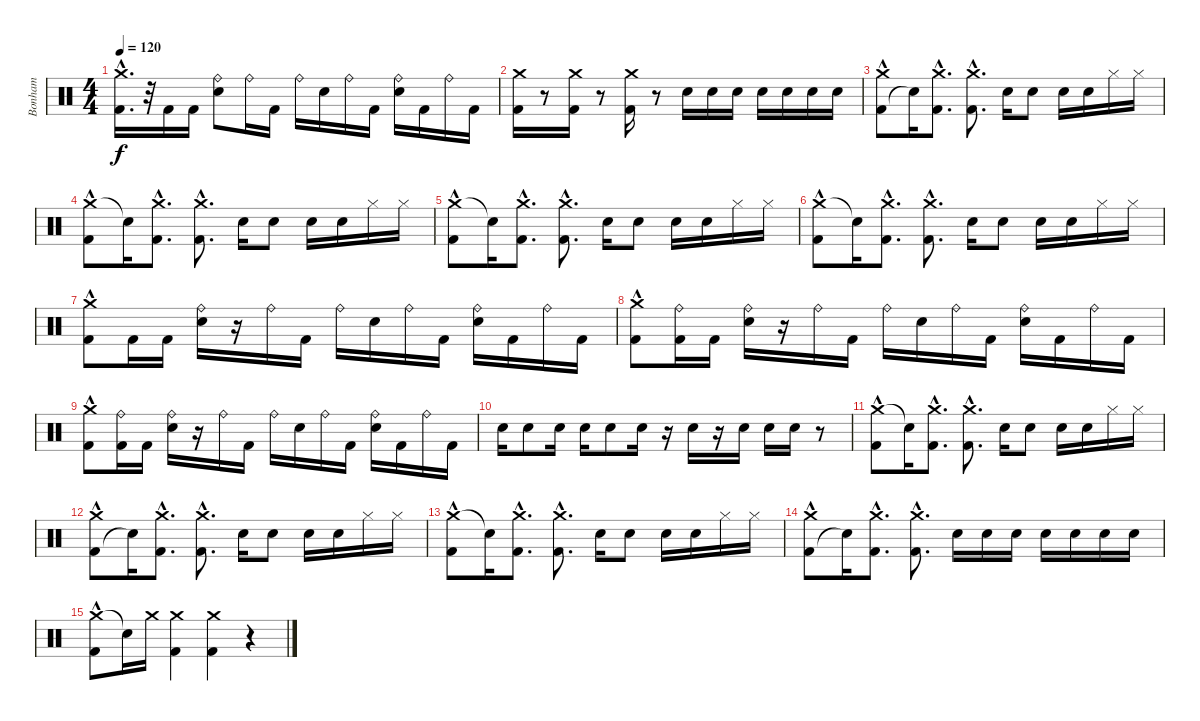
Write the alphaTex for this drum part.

\track ("Bonham" "Bonham") {instrument percussion}
\staff {score}
\articulation defaults
\ts (4 4)
\tempo 120
\clef neutral
\ks c
("Crash medium (hit)"{hac} "Kick (hit) 2"{hac}).16{d dy f} r.32 "Kick (hit) 2".16 "Kick (hit) 2".16 ("Ride (bell)" "Electric Snare (hit)").8 "Ride (bell)".16 "Kick (hit) 2".16 "Ride (bell)".16 "Electric Snare (hit)".16 "Ride (bell)".16 "Kick (hit) 2".16 ("Ride (bell)" "Electric Snare (hit)").16 "Kick (hit) 2".16 "Ride (bell)".16 "Kick (hit) 2".16 |
("Crash medium (hit)" "Kick (hit) 2").16 r.8 ("Kick (hit) 2" "Crash medium (hit)").16 r.8 ("Kick (hit) 2" "Crash medium (hit)").16 r.8 "Electric Snare (hit)".16 "Electric Snare (hit)".16 "Electric Snare (hit)".16 "Electric Snare (hit)".16 "Electric Snare (hit)".16 "Electric Snare (hit)".16 "Electric Snare (hit)".16 |
("Kick (hit) 2" "Crash medium (hit)"{hac}).8 "Snare (hit)"{t}.16 ("Kick (hit) 2"{hac} "Crash medium (hit)").8{d} ("Kick (hit) 2"{hac} "Crash medium (hit)").8{d} "Electric Snare (hit)".16 "Electric Snare (hit)".8 "Electric Snare (hit)".16 "Electric Snare (hit)".16 "Hi-Hat (closed)".16 "Hi-Hat (closed)".16 |
("Crash medium (hit)" "Kick (hit) 2"{hac}).8 "Snare (hit)"{t}.16 ("Kick (hit) 2"{hac} "Crash medium (hit)").8{d} ("Kick (hit) 2"{hac} "Crash medium (hit)").8{d} "Electric Snare (hit)".16 "Electric Snare (hit)".8 "Electric Snare (hit)".16 "Electric Snare (hit)".16 "Hi-Hat (closed)".16 "Hi-Hat (closed)".16 |
("Crash medium (hit)" "Kick (hit) 2"{hac}).8 "Snare (hit)"{t}.16 ("Kick (hit) 2"{hac} "Crash medium (hit)").8{d} ("Kick (hit) 2"{hac} "Crash medium (hit)").8{d} "Electric Snare (hit)".16 "Electric Snare (hit)".8 "Electric Snare (hit)".16 "Electric Snare (hit)".16 "Hi-Hat (closed)".16 "Hi-Hat (closed)".16 |
("Crash medium (hit)" "Kick (hit) 2"{hac}).8 "Snare (hit)"{t}.16 ("Kick (hit) 2"{hac} "Crash medium (hit)").8{d} ("Kick (hit) 2"{hac} "Crash medium (hit)").8{d} "Electric Snare (hit)".16 "Electric Snare (hit)".8 "Electric Snare (hit)".16 "Electric Snare (hit)".16 "Hi-Hat (closed)".16 "Hi-Hat (closed)".16 |
("Kick (hit) 2" "Crash medium (hit)"{hac}).8 "Kick (hit) 2".16 "Kick (hit) 2".16 ("Electric Snare (hit)" "Ride (bell)").16 r.16 "Ride (bell)".16 "Kick (hit) 2".16 "Ride (bell)".16 "Electric Snare (hit)".16 "Ride (bell)".16 "Kick (hit) 2".16 ("Ride (bell)" "Electric Snare (hit)").16 "Kick (hit) 2".16 "Ride (bell)".16 "Kick (hit) 2".16 |
("Crash medium (hit)" "Kick (hit) 2"{hac}).8 ("Kick (hit) 2" "Ride (bell)").16 "Kick (hit) 2".16 ("Electric Snare (hit)" "Ride (bell)").16 r.16 "Ride (bell)".16 "Kick (hit) 2".16 "Ride (bell)".16 "Electric Snare (hit)".16 "Ride (bell)".16 "Kick (hit) 2".16 ("Ride (bell)" "Electric Snare (hit)").16 "Kick (hit) 2".16 "Ride (bell)".16 "Kick (hit) 2".16 |
("Crash medium (hit)" "Kick (hit) 2"{hac}).8 ("Kick (hit) 2" "Ride (bell)").16 "Kick (hit) 2".16 ("Electric Snare (hit)" "Ride (bell)").16 r.16 "Ride (bell)".16 "Kick (hit) 2".16 "Ride (bell)".16 "Electric Snare (hit)".16 "Ride (bell)".16 "Kick (hit) 2".16 ("Ride (bell)" "Electric Snare (hit)").16 "Kick (hit) 2".16 "Ride (bell)".16 "Kick (hit) 2".16 |
"Electric Snare (hit)".16 "Electric Snare (hit)".8 "Electric Snare (hit)".16 "Electric Snare (hit)".16 "Electric Snare (hit)".8 "Electric Snare (hit)".16 r.16 "Electric Snare (hit)".16 r.16 "Electric Snare (hit)".16 "Electric Snare (hit)".16 "Electric Snare (hit)".16 r.8 |
("Crash medium (hit)" "Kick (hit) 2"{hac}).8 "Snare (hit)"{t}.16 ("Kick (hit) 2"{hac} "Crash medium (hit)").8{d} ("Kick (hit) 2"{hac} "Crash medium (hit)").8{d} "Electric Snare (hit)".16 "Electric Snare (hit)".8 "Electric Snare (hit)".16 "Electric Snare (hit)".16 "Hi-Hat (closed)".16 "Hi-Hat (closed)".16 |
("Kick (hit) 2" "Crash medium (hit)"{hac}).8 "Snare (hit)"{t}.16 ("Kick (hit) 2"{hac} "Crash medium (hit)").8{d} ("Kick (hit) 2"{hac} "Crash medium (hit)").8{d} "Electric Snare (hit)".16 "Electric Snare (hit)".8 "Electric Snare (hit)".16 "Electric Snare (hit)".16 "Hi-Hat (closed)".16 "Hi-Hat (closed)".16 |
("Crash medium (hit)" "Kick (hit) 2"{hac}).8 "Snare (hit)"{t}.16 ("Kick (hit) 2"{hac} "Crash medium (hit)").8{d} ("Kick (hit) 2"{hac} "Crash medium (hit)").8{d} "Electric Snare (hit)".16 "Electric Snare (hit)".8 "Electric Snare (hit)".16 "Electric Snare (hit)".16 "Hi-Hat (closed)".16 "Hi-Hat (closed)".16 |
("Kick (hit) 2" "Crash medium (hit)"{hac}).8 "Snare (hit)"{t}.16 ("Kick (hit) 2"{hac} "Crash medium (hit)").8{d} ("Kick (hit) 2"{hac} "Crash medium (hit)").8{d} "Electric Snare (hit)".16 "Electric Snare (hit)".16 "Electric Snare (hit)".16 "Electric Snare (hit)".16 "Electric Snare (hit)".16 "Electric Snare (hit)".16 "Electric Snare (hit)".16 |
("Crash medium (hit)" "Kick (hit) 2"{hac}).8 "Snare (hit)"{t}.16 "Crash medium (hit)".16 ("Crash medium (hit)" "Kick (hit) 2").4 ("Crash medium (hit)" "Kick (hit) 2").4 r.4
